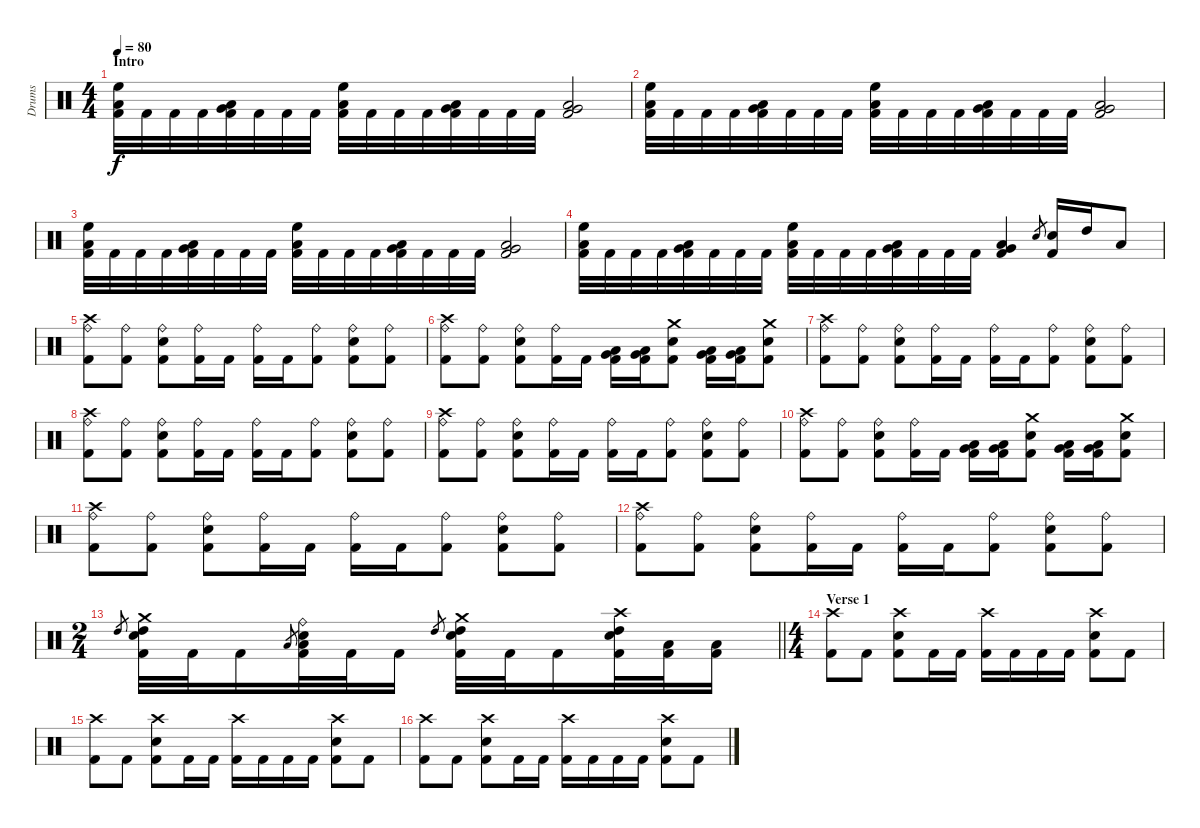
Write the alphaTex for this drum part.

\track ("Drums" "Drums") {instrument percussion}
\staff {score}
\articulation defaults
\ts (4 4)
\section ("" "Intro")
\tempo 80
\clef neutral
\ks c
("High Floor Tom (hit)" "Low Tom (hit)" "Kick (hit) 2").32{dy f} "Kick (hit) 2".32 "Kick (hit) 2".32 "Kick (hit) 2".32 ("Low Tom (hit)" "Very Low Tom (hit)" "Kick (hit) 2").32 "Kick (hit) 2".32 "Kick (hit) 2".32 "Kick (hit) 2".32 ("High Floor Tom (hit)" "Low Tom (hit)" "Kick (hit) 2").32 "Kick (hit) 2".32 "Kick (hit) 2".32 "Kick (hit) 2".32 ("Low Tom (hit)" "Very Low Tom (hit)" "Kick (hit) 2").32 "Kick (hit) 2".32 "Kick (hit) 2".32 "Kick (hit) 2".32 ("Low Tom (hit)" "Very Low Tom (hit)" "Kick (hit) 2").2 |
("High Floor Tom (hit)" "Low Tom (hit)" "Kick (hit) 2").32 "Kick (hit) 2".32 "Kick (hit) 2".32 "Kick (hit) 2".32 ("Low Tom (hit)" "Very Low Tom (hit)" "Kick (hit) 2").32 "Kick (hit) 2".32 "Kick (hit) 2".32 "Kick (hit) 2".32 ("High Floor Tom (hit)" "Low Tom (hit)" "Kick (hit) 2").32 "Kick (hit) 2".32 "Kick (hit) 2".32 "Kick (hit) 2".32 ("Low Tom (hit)" "Very Low Tom (hit)" "Kick (hit) 2").32 "Kick (hit) 2".32 "Kick (hit) 2".32 "Kick (hit) 2".32 ("Low Tom (hit)" "Very Low Tom (hit)" "Kick (hit) 2").2 |
("High Floor Tom (hit)" "Low Tom (hit)" "Kick (hit) 2").32 "Kick (hit) 2".32 "Kick (hit) 2".32 "Kick (hit) 2".32 ("Low Tom (hit)" "Very Low Tom (hit)" "Kick (hit) 2").32 "Kick (hit) 2".32 "Kick (hit) 2".32 "Kick (hit) 2".32 ("High Floor Tom (hit)" "Low Tom (hit)" "Kick (hit) 2").32 "Kick (hit) 2".32 "Kick (hit) 2".32 "Kick (hit) 2".32 ("Low Tom (hit)" "Very Low Tom (hit)" "Kick (hit) 2").32 "Kick (hit) 2".32 "Kick (hit) 2".32 "Kick (hit) 2".32 ("Low Tom (hit)" "Very Low Tom (hit)" "Kick (hit) 2").2 |
("High Floor Tom (hit)" "Low Tom (hit)" "Kick (hit) 2").32 "Kick (hit) 2".32 "Kick (hit) 2".32 "Kick (hit) 2".32 ("Low Tom (hit)" "Very Low Tom (hit)" "Kick (hit) 2").32 "Kick (hit) 2".32 "Kick (hit) 2".32 "Kick (hit) 2".32 ("High Floor Tom (hit)" "Low Tom (hit)" "Kick (hit) 2").32 "Kick (hit) 2".32 "Kick (hit) 2".32 "Kick (hit) 2".32 ("Low Tom (hit)" "Very Low Tom (hit)" "Kick (hit) 2").32 "Kick (hit) 2".32 "Kick (hit) 2".32 "Kick (hit) 2".32 ("Low Tom (hit)" "Very Low Tom (hit)" "Kick (hit) 2").4 "Electric Snare (hit)".8{gr} ("Electric Snare (hit)" "Kick (hit) 2").16 "High Tom (hit)".16 "Low Tom (hit)".8 |
("Crash high (hit)" "Ride (bell)" "Kick (hit) 2").8 ("Ride (bell)" "Kick (hit) 2").8 ("Ride (bell)" "Electric Snare (hit)" "Kick (hit) 2").8 ("Ride (bell)" "Kick (hit) 2").16 "Kick (hit) 2".16 ("Ride (bell)" "Kick (hit) 2").16 "Kick (hit) 2".16 ("Ride (bell)" "Kick (hit) 2").8 ("Ride (bell)" "Electric Snare (hit)" "Kick (hit) 2").8 ("Ride (bell)" "Kick (hit) 2").8 |
("Crash high (hit)" "Ride (bell)" "Kick (hit) 2").8 ("Ride (bell)" "Kick (hit) 2").8 ("Ride (bell)" "Electric Snare (hit)" "Kick (hit) 2").8 ("Ride (bell)" "Kick (hit) 2").16 "Kick (hit) 2".16 ("Low Tom (hit)" "Very Low Tom (hit)" "Kick (hit) 2").16 ("Low Tom (hit)" "Very Low Tom (hit)" "Kick (hit) 2").16 ("Crash medium (hit)" "Electric Snare (hit)" "Kick (hit) 2").8 ("Low Tom (hit)" "Very Low Tom (hit)" "Kick (hit) 2").16 ("Low Tom (hit)" "Very Low Tom (hit)" "Kick (hit) 2").16 ("Crash medium (hit)" "Electric Snare (hit)" "Kick (hit) 2").8 |
("Crash high (hit)" "Ride (bell)" "Kick (hit) 2").8 ("Ride (bell)" "Kick (hit) 2").8 ("Ride (bell)" "Electric Snare (hit)" "Kick (hit) 2").8 ("Ride (bell)" "Kick (hit) 2").16 "Kick (hit) 2".16 ("Ride (bell)" "Kick (hit) 2").16 "Kick (hit) 2".16 ("Ride (bell)" "Kick (hit) 2").8 ("Ride (bell)" "Electric Snare (hit)" "Kick (hit) 2").8 ("Ride (bell)" "Kick (hit) 2").8 |
("Crash high (hit)" "Ride (bell)" "Kick (hit) 2").8 ("Ride (bell)" "Kick (hit) 2").8 ("Ride (bell)" "Electric Snare (hit)" "Kick (hit) 2").8 ("Ride (bell)" "Kick (hit) 2").16 "Kick (hit) 2".16 ("Ride (bell)" "Kick (hit) 2").16 "Kick (hit) 2".16 ("Ride (bell)" "Kick (hit) 2").8 ("Ride (bell)" "Electric Snare (hit)" "Kick (hit) 2").8 ("Ride (bell)" "Kick (hit) 2").8 |
("Crash high (hit)" "Ride (bell)" "Kick (hit) 2").8 ("Ride (bell)" "Kick (hit) 2").8 ("Ride (bell)" "Electric Snare (hit)" "Kick (hit) 2").8 ("Ride (bell)" "Kick (hit) 2").16 "Kick (hit) 2".16 ("Ride (bell)" "Kick (hit) 2").16 "Kick (hit) 2".16 ("Ride (bell)" "Kick (hit) 2").8 ("Ride (bell)" "Electric Snare (hit)" "Kick (hit) 2").8 ("Ride (bell)" "Kick (hit) 2").8 |
("Crash high (hit)" "Ride (bell)" "Kick (hit) 2").8 ("Ride (bell)" "Kick (hit) 2").8 ("Ride (bell)" "Electric Snare (hit)" "Kick (hit) 2").8 ("Ride (bell)" "Kick (hit) 2").16 "Kick (hit) 2".16 ("Low Tom (hit)" "Very Low Tom (hit)" "Kick (hit) 2").16 ("Low Tom (hit)" "Very Low Tom (hit)" "Kick (hit) 2").16 ("Crash medium (hit)" "Electric Snare (hit)" "Kick (hit) 2").8 ("Low Tom (hit)" "Very Low Tom (hit)" "Kick (hit) 2").16 ("Low Tom (hit)" "Very Low Tom (hit)" "Kick (hit) 2").16 ("Crash medium (hit)" "Electric Snare (hit)" "Kick (hit) 2").8 |
("Crash high (hit)" "Ride (bell)" "Kick (hit) 2").8 ("Ride (bell)" "Kick (hit) 2").8 ("Ride (bell)" "Electric Snare (hit)" "Kick (hit) 2").8 ("Ride (bell)" "Kick (hit) 2").16 "Kick (hit) 2".16 ("Ride (bell)" "Kick (hit) 2").16 "Kick (hit) 2".16 ("Ride (bell)" "Kick (hit) 2").8 ("Ride (bell)" "Electric Snare (hit)" "Kick (hit) 2").8 ("Ride (bell)" "Kick (hit) 2").8 |
("Crash high (hit)" "Ride (bell)" "Kick (hit) 2").8 ("Ride (bell)" "Kick (hit) 2").8 ("Ride (bell)" "Electric Snare (hit)" "Kick (hit) 2").8 ("Ride (bell)" "Kick (hit) 2").16 "Kick (hit) 2".16 ("Ride (bell)" "Kick (hit) 2").16 "Kick (hit) 2".16 ("Ride (bell)" "Kick (hit) 2").8 ("Ride (bell)" "Electric Snare (hit)" "Kick (hit) 2").8 ("Ride (bell)" "Kick (hit) 2").8 |
\ts (2 4)
\barLineRight lightlight "High Tom (hit)".8{gr}
("Crash medium (hit)" "High Tom (hit)" "Electric Snare (hit)" "Kick (hit) 2").32 "Kick (hit) 2".32 "Kick (hit) 2".16 "Low Tom (hit)".8{gr} ("Ride (bell)" "Low Tom (hit)" "Electric Snare (hit)" "Kick (hit) 2").32 "Kick (hit) 2".32 "Kick (hit) 2".16 "High Tom (hit)".8{gr} ("Crash medium (hit)" "High Tom (hit)" "Electric Snare (hit)" "Kick (hit) 2").32 "Kick (hit) 2".32 "Kick (hit) 2".16 ("Crash high (hit)" "High Tom (hit)" "Electric Snare (hit)" "Kick (hit) 2").32 ("Low Tom (hit)" "Kick (hit) 2").32 ("Low Tom (hit)" "Kick (hit) 2").16 |
\ts (4 4)
\section ("" "Verse 1")
("Crash high (hit)" "Kick (hit) 2").8 "Kick (hit) 2".8 ("Crash high (hit)" "Electric Snare (hit)" "Kick (hit) 2").8 "Kick (hit) 2".16 "Kick (hit) 2".16 ("Crash high (hit)" "Kick (hit) 2").16 "Kick (hit) 2".16 "Kick (hit) 2".16 "Kick (hit) 2".16 ("Crash high (hit)" "Electric Snare (hit)" "Kick (hit) 2").8 "Kick (hit) 2".8 |
("Crash high (hit)" "Kick (hit) 2").8 "Kick (hit) 2".8 ("Crash high (hit)" "Electric Snare (hit)" "Kick (hit) 2").8 "Kick (hit) 2".16 "Kick (hit) 2".16 ("Crash high (hit)" "Kick (hit) 2").16 "Kick (hit) 2".16 "Kick (hit) 2".16 "Kick (hit) 2".16 ("Crash high (hit)" "Electric Snare (hit)" "Kick (hit) 2").8 "Kick (hit) 2".8 |
("Crash high (hit)" "Kick (hit) 2").8 "Kick (hit) 2".8 ("Crash high (hit)" "Electric Snare (hit)" "Kick (hit) 2").8 "Kick (hit) 2".16 "Kick (hit) 2".16 ("Crash high (hit)" "Kick (hit) 2").16 "Kick (hit) 2".16 "Kick (hit) 2".16 "Kick (hit) 2".16 ("Crash high (hit)" "Electric Snare (hit)" "Kick (hit) 2").8 "Kick (hit) 2".8
